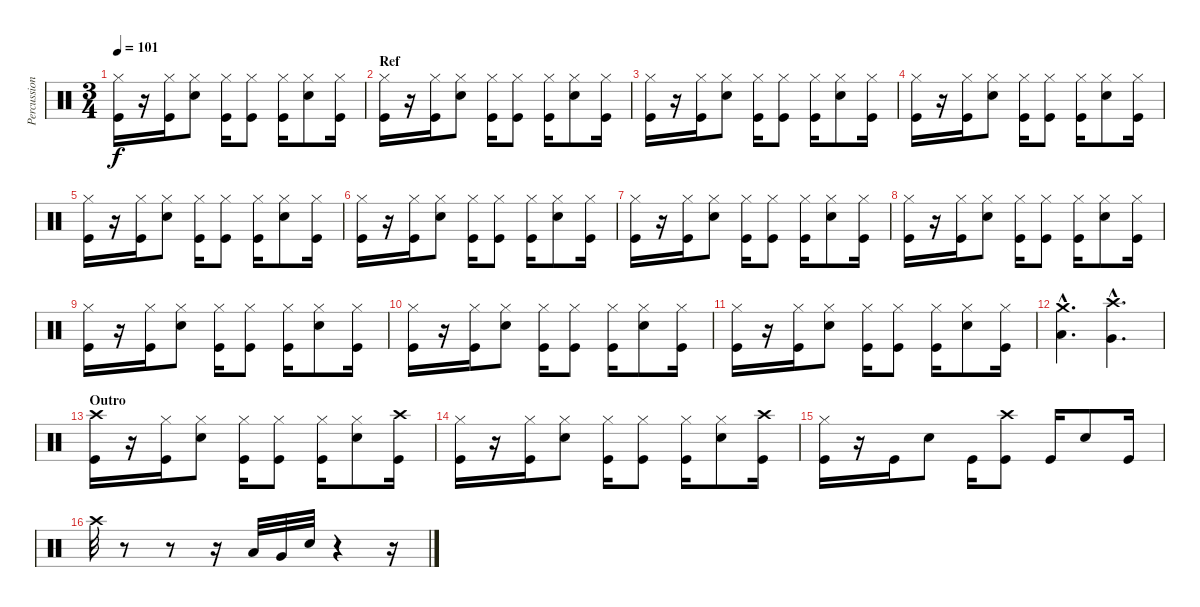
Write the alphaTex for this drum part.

\track ("Percussion" "Percussion") {instrument percussion}
\staff {score}
\articulation defaults
\ts (3 4)
\tempo 101
\clef neutral
\ks c
("Hi-Hat (closed)" "Kick (hit)").16{dy f} r.16 ("Hi-Hat (closed)" "Kick (hit)").16 ("Hi-Hat (closed)" "Electric Snare (hit)").8 ("Hi-Hat (closed)" "Kick (hit)").16 ("Hi-Hat (closed)" "Kick (hit)").8 ("Hi-Hat (closed)" "Kick (hit)").16 ("Hi-Hat (closed)" "Electric Snare (hit)").8 ("Hi-Hat (closed)" "Kick (hit)").16 |
\section ("" "Ref")
("Hi-Hat (closed)" "Kick (hit)").16 r.16 ("Hi-Hat (closed)" "Kick (hit)").16 ("Hi-Hat (closed)" "Electric Snare (hit)").8 ("Hi-Hat (closed)" "Kick (hit)").16 ("Hi-Hat (closed)" "Kick (hit)").8 ("Hi-Hat (closed)" "Kick (hit)").16 ("Hi-Hat (closed)" "Electric Snare (hit)").8 ("Hi-Hat (closed)" "Kick (hit)").16 |
("Hi-Hat (closed)" "Kick (hit)").16 r.16 ("Hi-Hat (closed)" "Kick (hit)").16 ("Hi-Hat (closed)" "Electric Snare (hit)").8 ("Hi-Hat (closed)" "Kick (hit)").16 ("Hi-Hat (closed)" "Kick (hit)").8 ("Hi-Hat (closed)" "Kick (hit)").16 ("Hi-Hat (closed)" "Electric Snare (hit)").8 ("Hi-Hat (closed)" "Kick (hit)").16 |
("Hi-Hat (closed)" "Kick (hit)").16 r.16 ("Hi-Hat (closed)" "Kick (hit)").16 ("Hi-Hat (closed)" "Electric Snare (hit)").8 ("Hi-Hat (closed)" "Kick (hit)").16 ("Hi-Hat (closed)" "Kick (hit)").8 ("Hi-Hat (closed)" "Kick (hit)").16 ("Hi-Hat (closed)" "Electric Snare (hit)").8 ("Hi-Hat (closed)" "Kick (hit)").16 |
("Hi-Hat (closed)" "Kick (hit)").16 r.16 ("Hi-Hat (closed)" "Kick (hit)").16 ("Hi-Hat (closed)" "Electric Snare (hit)").8 ("Hi-Hat (closed)" "Kick (hit)").16 ("Hi-Hat (closed)" "Kick (hit)").8 ("Hi-Hat (closed)" "Kick (hit)").16 ("Hi-Hat (closed)" "Electric Snare (hit)").8 ("Hi-Hat (closed)" "Kick (hit)").16 |
("Hi-Hat (closed)" "Kick (hit)").16 r.16 ("Hi-Hat (closed)" "Kick (hit)").16 ("Hi-Hat (closed)" "Electric Snare (hit)").8 ("Hi-Hat (closed)" "Kick (hit)").16 ("Hi-Hat (closed)" "Kick (hit)").8 ("Hi-Hat (closed)" "Kick (hit)").16 ("Hi-Hat (closed)" "Electric Snare (hit)").8 ("Hi-Hat (closed)" "Kick (hit)").16 |
("Hi-Hat (closed)" "Kick (hit)").16 r.16 ("Hi-Hat (closed)" "Kick (hit)").16 ("Hi-Hat (closed)" "Electric Snare (hit)").8 ("Hi-Hat (closed)" "Kick (hit)").16 ("Hi-Hat (closed)" "Kick (hit)").8 ("Hi-Hat (closed)" "Kick (hit)").16 ("Hi-Hat (closed)" "Electric Snare (hit)").8 ("Hi-Hat (closed)" "Kick (hit)").16 |
("Hi-Hat (closed)" "Kick (hit)").16 r.16 ("Hi-Hat (closed)" "Kick (hit)").16 ("Hi-Hat (closed)" "Electric Snare (hit)").8 ("Hi-Hat (closed)" "Kick (hit)").16 ("Hi-Hat (closed)" "Kick (hit)").8 ("Hi-Hat (closed)" "Kick (hit)").16 ("Hi-Hat (closed)" "Electric Snare (hit)").8 ("Hi-Hat (closed)" "Kick (hit)").16 |
("Hi-Hat (closed)" "Kick (hit)").16 r.16 ("Hi-Hat (closed)" "Kick (hit)").16 ("Hi-Hat (closed)" "Electric Snare (hit)").8 ("Hi-Hat (closed)" "Kick (hit)").16 ("Hi-Hat (closed)" "Kick (hit)").8 ("Hi-Hat (closed)" "Kick (hit)").16 ("Hi-Hat (closed)" "Electric Snare (hit)").8 ("Hi-Hat (closed)" "Kick (hit)").16 |
("Hi-Hat (closed)" "Kick (hit)").16 r.16 ("Hi-Hat (closed)" "Kick (hit)").16 ("Hi-Hat (closed)" "Electric Snare (hit)").8 ("Hi-Hat (closed)" "Kick (hit)").16 ("Hi-Hat (closed)" "Kick (hit)").8 ("Hi-Hat (closed)" "Kick (hit)").16 ("Hi-Hat (closed)" "Electric Snare (hit)").8 ("Hi-Hat (closed)" "Kick (hit)").16 |
("Hi-Hat (closed)" "Kick (hit)").16 r.16 ("Hi-Hat (closed)" "Kick (hit)").16 ("Hi-Hat (closed)" "Electric Snare (hit)").8 ("Hi-Hat (closed)" "Kick (hit)").16 ("Hi-Hat (closed)" "Kick (hit)").8 ("Hi-Hat (closed)" "Kick (hit)").16 ("Hi-Hat (closed)" "Electric Snare (hit)").8 ("Hi-Hat (closed)" "Kick (hit)").16 |
("Crash medium (hit)"{hac} "Low Tom (hit)"{hac}).4{d} ("Crash high (hit)"{hac} "Very Low Tom (hit)"{hac}).4{d} |
\section ("" "Outro")
("Crash high (hit)" "Kick (hit)").16 r.16 ("Hi-Hat (closed)" "Kick (hit)").16 ("Hi-Hat (closed)" "Electric Snare (hit)").8 ("Hi-Hat (closed)" "Kick (hit)").16 ("Hi-Hat (closed)" "Kick (hit)").8 ("Hi-Hat (closed)" "Kick (hit)").16 ("Hi-Hat (closed)" "Electric Snare (hit)").8 ("Crash high (hit)" "Kick (hit)").16 |
("Hi-Hat (closed)" "Kick (hit)").16 r.16 ("Hi-Hat (closed)" "Kick (hit)").16 ("Hi-Hat (closed)" "Electric Snare (hit)").8 ("Hi-Hat (closed)" "Kick (hit)").16 ("Hi-Hat (closed)" "Kick (hit)").8 ("Hi-Hat (closed)" "Kick (hit)").16 ("Hi-Hat (closed)" "Electric Snare (hit)").8 ("Crash high (hit)" "Kick (hit)").16 |
("Hi-Hat (closed)" "Kick (hit)").16 r.16 "Kick (hit)".16 "Electric Snare (hit)".8 "Kick (hit)".16 ("Crash high (hit)" "Kick (hit)").8 "Kick (hit)".16 "Electric Snare (hit)".8 "Kick (hit)".16 |
"Crash high (hit)".32 r.8 r.8 r.16 "Low Tom (hit)".32 "Very Low Tom (hit)".32 "Snare (hit) 2".32 r.4 r.16
